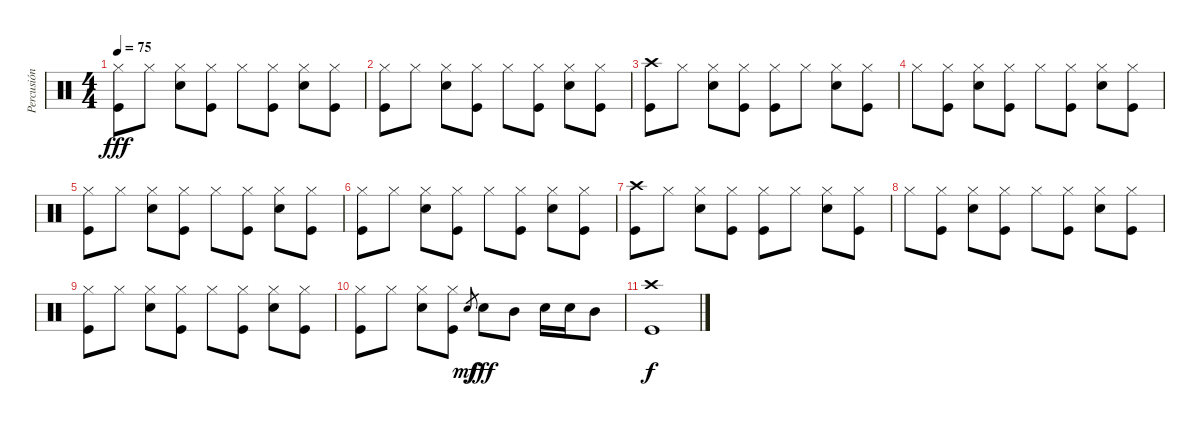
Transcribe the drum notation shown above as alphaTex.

\track ("Percusión" "Percusión") {instrument percussion}
\staff {score}
\articulation defaults
\ts (4 4)
\tempo 75
\clef neutral
\ks c
("Hi-Hat (closed)" "Kick (hit)").8{dy fff} "Hi-Hat (closed)".8 ("Hi-Hat (closed)" "Snare (hit) 2").8 ("Hi-Hat (closed)" "Kick (hit)").8 "Hi-Hat (closed)".8 ("Hi-Hat (closed)" "Kick (hit)").8 ("Hi-Hat (closed)" "Snare (hit) 2").8 ("Hi-Hat (closed)" "Kick (hit)").8 |
("Hi-Hat (closed)" "Kick (hit)").8 "Hi-Hat (closed)".8 ("Hi-Hat (closed)" "Snare (hit) 2").8 ("Hi-Hat (closed)" "Kick (hit)").8 "Hi-Hat (closed)".8 ("Hi-Hat (closed)" "Kick (hit)").8 ("Hi-Hat (closed)" "Snare (hit) 2").8 ("Hi-Hat (closed)" "Kick (hit)").8 |
("Crash high (hit)" "Kick (hit)").8 "Hi-Hat (closed)".8 ("Hi-Hat (closed)" "Snare (hit) 2").8 ("Hi-Hat (closed)" "Kick (hit)").8 ("Hi-Hat (closed)" "Kick (hit)").8 "Hi-Hat (closed)".8 ("Hi-Hat (closed)" "Snare (hit) 2").8 ("Hi-Hat (closed)" "Kick (hit)").8 |
"Hi-Hat (closed)".8 ("Hi-Hat (closed)" "Kick (hit)").8 ("Hi-Hat (closed)" "Snare (hit) 2").8 ("Hi-Hat (closed)" "Kick (hit)").8 "Hi-Hat (closed)".8 ("Hi-Hat (closed)" "Kick (hit)").8 ("Hi-Hat (closed)" "Snare (hit) 2").8 ("Hi-Hat (closed)" "Kick (hit)").8 |
("Hi-Hat (closed)" "Kick (hit)").8 "Hi-Hat (closed)".8 ("Hi-Hat (closed)" "Snare (hit) 2").8 ("Hi-Hat (closed)" "Kick (hit)").8 "Hi-Hat (closed)".8 ("Hi-Hat (closed)" "Kick (hit)").8 ("Hi-Hat (closed)" "Snare (hit) 2").8 ("Hi-Hat (closed)" "Kick (hit)").8 |
("Hi-Hat (closed)" "Kick (hit)").8 "Hi-Hat (closed)".8 ("Hi-Hat (closed)" "Snare (hit) 2").8 ("Hi-Hat (closed)" "Kick (hit)").8 "Hi-Hat (closed)".8 ("Hi-Hat (closed)" "Kick (hit)").8 ("Hi-Hat (closed)" "Snare (hit) 2").8 ("Hi-Hat (closed)" "Kick (hit)").8 |
("Crash high (hit)" "Kick (hit)").8 "Hi-Hat (closed)".8 ("Hi-Hat (closed)" "Snare (hit) 2").8 ("Hi-Hat (closed)" "Kick (hit)").8 ("Hi-Hat (closed)" "Kick (hit)").8 "Hi-Hat (closed)".8 ("Hi-Hat (closed)" "Snare (hit) 2").8 ("Hi-Hat (closed)" "Kick (hit)").8 |
"Hi-Hat (closed)".8 ("Hi-Hat (closed)" "Kick (hit)").8 ("Hi-Hat (closed)" "Snare (hit) 2").8 ("Hi-Hat (closed)" "Kick (hit)").8 "Hi-Hat (closed)".8 ("Hi-Hat (closed)" "Kick (hit)").8 ("Hi-Hat (closed)" "Snare (hit) 2").8 ("Hi-Hat (closed)" "Kick (hit)").8 |
("Hi-Hat (closed)" "Kick (hit)").8 "Hi-Hat (closed)".8 ("Hi-Hat (closed)" "Snare (hit) 2").8 ("Hi-Hat (closed)" "Kick (hit)").8 "Hi-Hat (closed)".8 ("Hi-Hat (closed)" "Kick (hit)").8 ("Hi-Hat (closed)" "Snare (hit) 2").8 ("Hi-Hat (closed)" "Kick (hit)").8 |
("Hi-Hat (closed)" "Kick (hit)").8 "Hi-Hat (closed)".8 ("Hi-Hat (closed)" "Snare (hit) 2").8 ("Hi-Hat (closed)" "Kick (hit)").8 "Snare (hit) 2"{h}.8{gr dy mf} "Snare (hit) 2".8{dy fff} "Mid Tom (hit)".8 "Snare (hit) 2".16 "Snare (hit) 2".16 "Mid Tom (hit)".8 |
("Crash high (hit)" "Kick (hit)").1{dy f}
